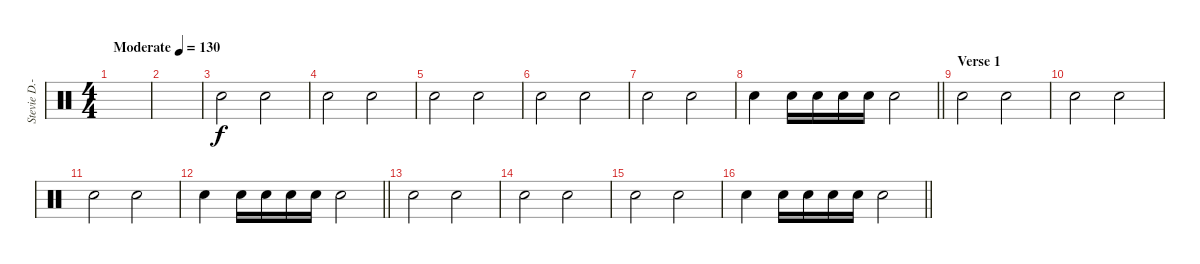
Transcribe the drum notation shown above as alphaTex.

\track ("Stevie D.-Drums" "Stevie D.-") {instrument percussion}
\staff {score}
\articulation defaults
\ts (4 4)
\tempo (130 "Moderate")
\clef neutral
\ks c
|
|
"Snare (hit) 2".2 "Snare (hit) 2".2 |
"Snare (hit) 2".2 "Snare (hit) 2".2 |
"Snare (hit) 2".2 "Snare (hit) 2".2 |
"Snare (hit) 2".2 "Snare (hit) 2".2 |
"Snare (hit) 2".2 "Snare (hit) 2".2 |
\barLineRight lightlight "Snare (hit) 2".4 "Electric Snare (hit)".16 "Electric Snare (hit)".16 "Electric Snare (hit)".16 "Electric Snare (hit)".16 "Snare (hit) 2".2
|
\section ("" "Verse 1")
"Snare (hit) 2".2 "Snare (hit) 2".2 |
"Snare (hit) 2".2 "Snare (hit) 2".2 |
"Snare (hit) 2".2 "Snare (hit) 2".2 |
\barLineRight lightlight "Snare (hit) 2".4 "Electric Snare (hit)".16 "Electric Snare (hit)".16 "Electric Snare (hit)".16 "Electric Snare (hit)".16 "Snare (hit) 2".2
|
"Snare (hit) 2".2 "Snare (hit) 2".2 |
"Snare (hit) 2".2 "Snare (hit) 2".2 |
"Snare (hit) 2".2 "Snare (hit) 2".2 |
\barLineRight lightlight "Snare (hit) 2".4 "Electric Snare (hit)".16 "Electric Snare (hit)".16 "Electric Snare (hit)".16 "Electric Snare (hit)".16 "Snare (hit) 2".2
